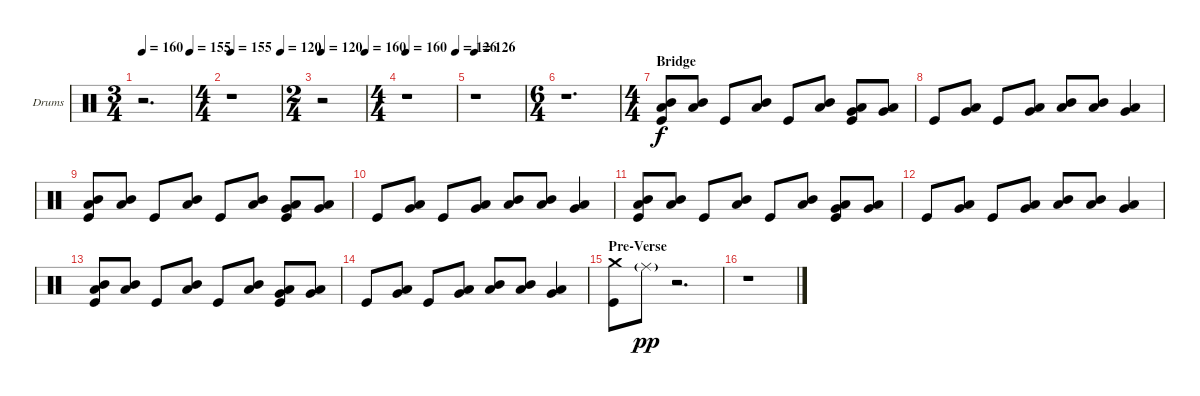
\bracketExtendMode groupsimilarinstruments
\firstSystemTrackNameOrientation horizontal
\otherSystemsTrackNameOrientation horizontal
\track ("Drumkit" "Drums") {instrument percussion}
\staff {score}
\articulation defaults
\ts (3 4)
\beaming (8 3 1 1 1)
\tempo 160
\tempo (155 1)
\clef neutral
\ks c
r.2{d dy f} |
\ts (4 4)
\beaming (8 2 2 2 2)
\tempo 155
\tempo (120 1)
r.1 |
\ts (2 4)
\beaming (8 1 1 1 1)
\tempo 120
\tempo (160 1)
r.2 |
\ts (4 4)
\beaming (8 2 2 2 2)
\tempo 160
\tempo (126 1)
r.1 |
\tempo 126
r.1 |
\ts (6 4)
\beaming (8 3 3 3 3)
r.1{d} |
\ts (4 4)
\beaming (8 2 2 2 2)
\section ("" "Bridge")
("Mid Tom (hit)" "Low Tom (hit)" "Kick (hit)").8 ("Mid Tom (hit)" "Low Tom (hit)").8 "Kick (hit)".8 ("Mid Tom (hit)" "Low Tom (hit)").8 "Kick (hit)".8 ("Mid Tom (hit)" "Low Tom (hit)").8 ("Low Tom (hit)" "Very Low Tom (hit)" "Kick (hit)").8 ("Low Tom (hit)" "Very Low Tom (hit)").8 |
"Kick (hit)".8 ("Low Tom (hit)" "Very Low Tom (hit)").8 "Kick (hit)".8 ("Low Tom (hit)" "Very Low Tom (hit)").8 ("Mid Tom (hit)" "Low Tom (hit)").8 ("Mid Tom (hit)" "Low Tom (hit)").8 ("Low Tom (hit)" "Very Low Tom (hit)").4 |
("Mid Tom (hit)" "Low Tom (hit)" "Kick (hit)").8 ("Mid Tom (hit)" "Low Tom (hit)").8 "Kick (hit)".8 ("Mid Tom (hit)" "Low Tom (hit)").8 "Kick (hit)".8 ("Mid Tom (hit)" "Low Tom (hit)").8 ("Low Tom (hit)" "Very Low Tom (hit)" "Kick (hit)").8 ("Low Tom (hit)" "Very Low Tom (hit)").8 |
"Kick (hit)".8 ("Low Tom (hit)" "Very Low Tom (hit)").8 "Kick (hit)".8 ("Low Tom (hit)" "Very Low Tom (hit)").8 ("Mid Tom (hit)" "Low Tom (hit)").8 ("Mid Tom (hit)" "Low Tom (hit)").8 ("Low Tom (hit)" "Very Low Tom (hit)").4 |
("Mid Tom (hit)" "Low Tom (hit)" "Kick (hit)").8 ("Mid Tom (hit)" "Low Tom (hit)").8 "Kick (hit)".8 ("Mid Tom (hit)" "Low Tom (hit)").8 "Kick (hit)".8 ("Mid Tom (hit)" "Low Tom (hit)").8 ("Low Tom (hit)" "Very Low Tom (hit)" "Kick (hit)").8 ("Low Tom (hit)" "Very Low Tom (hit)").8 |
"Kick (hit)".8 ("Low Tom (hit)" "Very Low Tom (hit)").8 "Kick (hit)".8 ("Low Tom (hit)" "Very Low Tom (hit)").8 ("Mid Tom (hit)" "Low Tom (hit)").8 ("Mid Tom (hit)" "Low Tom (hit)").8 ("Low Tom (hit)" "Very Low Tom (hit)").4 |
("Mid Tom (hit)" "Low Tom (hit)" "Kick (hit)").8 ("Mid Tom (hit)" "Low Tom (hit)").8 "Kick (hit)".8 ("Mid Tom (hit)" "Low Tom (hit)").8 "Kick (hit)".8 ("Mid Tom (hit)" "Low Tom (hit)").8 ("Low Tom (hit)" "Very Low Tom (hit)" "Kick (hit)").8 ("Low Tom (hit)" "Very Low Tom (hit)").8 |
"Kick (hit)".8 ("Low Tom (hit)" "Very Low Tom (hit)").8 "Kick (hit)".8 ("Low Tom (hit)" "Very Low Tom (hit)").8 ("Mid Tom (hit)" "Low Tom (hit)").8 ("Mid Tom (hit)" "Low Tom (hit)").8 ("Low Tom (hit)" "Very Low Tom (hit)").4 |
\section ("" "Pre-Verse")
("Crash medium (hit)" "Kick (hit)").8 "Ride (middle)"{g}.8{dy pp} r.2{d} |
r.1
